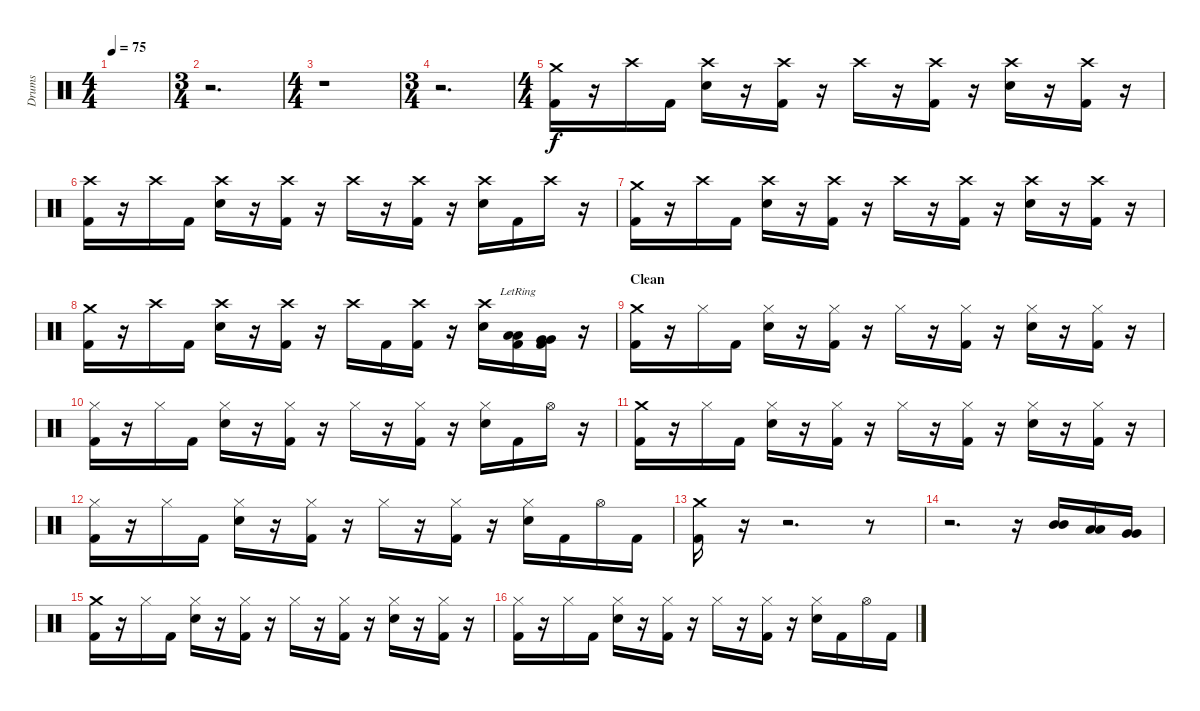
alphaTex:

\track ("Drums" "Drums") {instrument percussion}
\staff {score}
\articulation defaults
\ts (4 4)
\tempo 75
\clef neutral
\ks c
|
\ts (3 4)
r.2{d} |
\ts (4 4)
r.1 |
\ts (3 4)
r.2{d} |
\ts (4 4)
("Crash medium (hit)" "Kick (hit) 2").16 r.16 "Crash high (hit)".16 "Kick (hit) 2".16 ("Crash high (hit)" "Electric Snare (hit)").16 r.16 ("Crash high (hit)" "Kick (hit) 2").16 r.16 "Crash high (hit)".16 r.16 ("Crash high (hit)" "Kick (hit) 2").16 r.16 ("Crash high (hit)" "Electric Snare (hit)").16 r.16 ("Crash high (hit)" "Kick (hit) 2").16 r.16 |
("Crash high (hit)" "Kick (hit) 2").16 r.16 "Crash high (hit)".16 "Kick (hit) 2".16 ("Crash high (hit)" "Electric Snare (hit)").16 r.16 ("Crash high (hit)" "Kick (hit) 2").16 r.16 "Crash high (hit)".16 r.16 ("Crash high (hit)" "Kick (hit) 2").16 r.16 ("Crash high (hit)" "Electric Snare (hit)").16 "Kick (hit) 2".16 "Crash high (hit)".16 r.16 |
("Crash medium (hit)" "Kick (hit) 2").16 r.16 "Crash high (hit)".16 "Kick (hit) 2".16 ("Crash high (hit)" "Electric Snare (hit)").16 r.16 ("Crash high (hit)" "Kick (hit) 2").16 r.16 "Crash high (hit)".16 r.16 ("Crash high (hit)" "Kick (hit) 2").16 r.16 ("Crash high (hit)" "Electric Snare (hit)").16 r.16 ("Crash high (hit)" "Kick (hit) 2").16 r.16 |
("Crash medium (hit)" "Kick (hit) 2").16 r.16 "Crash high (hit)".16 "Kick (hit) 2".16 ("Crash high (hit)" "Electric Snare (hit)").16 r.16 ("Crash high (hit)" "Kick (hit) 2").16 r.16 "Crash high (hit)".16 "Kick (hit) 2".16 ("Crash high (hit)" "Kick (hit) 2").16 r.16 ("Crash high (hit)" "Electric Snare (hit)").16 ("Low Tom (hit)"{lr} "Low Tom (hit)" "Kick (hit) 2").16 ("Very Low Tom (hit)"{lr} "Very Low Tom (hit)" "Kick (hit) 2").16 r.16 |
\section ("" "Clean")
("Crash medium (hit)" "Kick (hit) 2").16 r.16 "Hi-Hat (closed)".16 "Kick (hit) 2".16 ("Hi-Hat (closed)" "Electric Snare (hit)").16 r.16 ("Hi-Hat (closed)" "Kick (hit) 2").16 r.16 "Hi-Hat (closed)".16 r.16 ("Hi-Hat (closed)" "Kick (hit) 2").16 r.16 ("Hi-Hat (closed)" "Electric Snare (hit)").16 r.16 ("Hi-Hat (closed)" "Kick (hit) 2").16 r.16 |
("Hi-Hat (closed)" "Kick (hit) 2").16 r.16 "Hi-Hat (closed)".16 "Kick (hit) 2".16 ("Hi-Hat (closed)" "Electric Snare (hit)").16 r.16 ("Hi-Hat (closed)" "Kick (hit) 2").16 r.16 "Hi-Hat (closed)".16 r.16 ("Hi-Hat (closed)" "Kick (hit) 2").16 r.16 ("Hi-Hat (closed)" "Electric Snare (hit)").16 "Kick (hit) 2".16 "Hi-Hat (open)".16 r.16 |
("Crash medium (hit)" "Kick (hit) 2").16 r.16 "Hi-Hat (closed)".16 "Kick (hit) 2".16 ("Hi-Hat (closed)" "Electric Snare (hit)").16 r.16 ("Hi-Hat (closed)" "Kick (hit) 2").16 r.16 "Hi-Hat (closed)".16 r.16 ("Hi-Hat (closed)" "Kick (hit) 2").16 r.16 ("Hi-Hat (closed)" "Electric Snare (hit)").16 r.16 ("Hi-Hat (closed)" "Kick (hit) 2").16 r.16 |
("Hi-Hat (closed)" "Kick (hit) 2").16 r.16 "Hi-Hat (closed)".16 "Kick (hit) 2".16 ("Hi-Hat (closed)" "Electric Snare (hit)").16 r.16 ("Hi-Hat (closed)" "Kick (hit) 2").16 r.16 "Hi-Hat (closed)".16 r.16 ("Hi-Hat (closed)" "Kick (hit) 2").16 r.16 ("Hi-Hat (closed)" "Electric Snare (hit)").16 "Kick (hit) 2".16 "Hi-Hat (open)".16 "Kick (hit) 2".16 |
("Crash medium (hit)" "Kick (hit) 2").16 r.16 r.2{d} r.8 |
r.2{d} r.16 ("Mid Tom (hit)" "Mid Tom (hit)").16 ("Low Tom (hit)" "Low Tom (hit)").16 ("Very Low Tom (hit)" "Very Low Tom (hit)").16 |
("Crash medium (hit)" "Kick (hit) 2").16 r.16 "Hi-Hat (closed)".16 "Kick (hit) 2".16 ("Hi-Hat (closed)" "Electric Snare (hit)").16 r.16 ("Hi-Hat (closed)" "Kick (hit) 2").16 r.16 "Hi-Hat (closed)".16 r.16 ("Hi-Hat (closed)" "Kick (hit) 2").16 r.16 ("Hi-Hat (closed)" "Electric Snare (hit)").16 r.16 ("Hi-Hat (closed)" "Kick (hit) 2").16 r.16 |
("Hi-Hat (closed)" "Kick (hit) 2").16 r.16 "Hi-Hat (closed)".16 "Kick (hit) 2".16 ("Hi-Hat (closed)" "Electric Snare (hit)").16 r.16 ("Hi-Hat (closed)" "Kick (hit) 2").16 r.16 "Hi-Hat (closed)".16 r.16 ("Hi-Hat (closed)" "Kick (hit) 2").16 r.16 ("Hi-Hat (closed)" "Electric Snare (hit)").16 "Kick (hit) 2".16 "Hi-Hat (open)".16 "Kick (hit) 2".16
